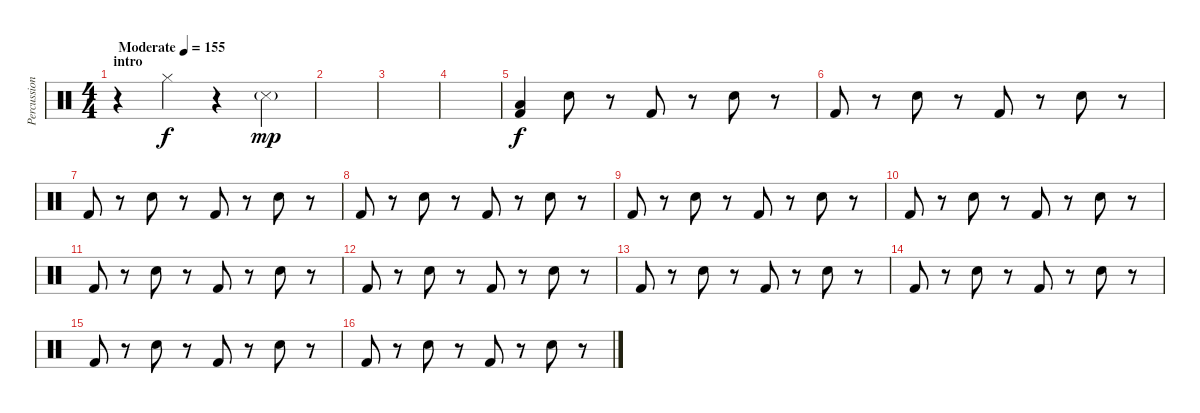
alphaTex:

\track ("Percussions" "Percussion") {instrument percussion}
\staff {score}
\articulation defaults
\ts (4 4)
\section ("" "intro")
\tempo (155 "Moderate")
\clef neutral
\ks c
r.4{dy f} "Hi-Hat (closed)".4 r.4 "Metronome (hit)"{g}.4{dy mp} |
|
|
|
("Low Floor Tom (hit)" "Kick (hit) 2").4{dy f} "Snare (hit) 2".8 r.8 "Kick (hit) 2".8 r.8 "Snare (hit) 2".8 r.8 |
"Kick (hit) 2".8 r.8 "Snare (hit) 2".8 r.8 "Kick (hit) 2".8 r.8 "Snare (hit) 2".8 r.8 |
"Kick (hit) 2".8 r.8 "Snare (hit) 2".8 r.8 "Kick (hit) 2".8 r.8 "Snare (hit) 2".8 r.8 |
"Kick (hit) 2".8 r.8 "Snare (hit) 2".8 r.8 "Kick (hit) 2".8 r.8 "Snare (hit) 2".8 r.8 |
"Kick (hit) 2".8 r.8 "Snare (hit) 2".8 r.8 "Kick (hit) 2".8 r.8 "Snare (hit) 2".8 r.8 |
"Kick (hit) 2".8 r.8 "Snare (hit) 2".8 r.8 "Kick (hit) 2".8 r.8 "Snare (hit) 2".8 r.8 |
"Kick (hit) 2".8 r.8 "Snare (hit) 2".8 r.8 "Kick (hit) 2".8 r.8 "Snare (hit) 2".8 r.8 |
"Kick (hit) 2".8 r.8 "Snare (hit) 2".8 r.8 "Kick (hit) 2".8 r.8 "Snare (hit) 2".8 r.8 |
"Kick (hit) 2".8 r.8 "Snare (hit) 2".8 r.8 "Kick (hit) 2".8 r.8 "Snare (hit) 2".8 r.8 |
"Kick (hit) 2".8 r.8 "Snare (hit) 2".8 r.8 "Kick (hit) 2".8 r.8 "Snare (hit) 2".8 r.8 |
"Kick (hit) 2".8 r.8 "Snare (hit) 2".8 r.8 "Kick (hit) 2".8 r.8 "Snare (hit) 2".8 r.8 |
"Kick (hit) 2".8 r.8 "Snare (hit) 2".8 r.8 "Kick (hit) 2".8 r.8 "Snare (hit) 2".8 r.8
